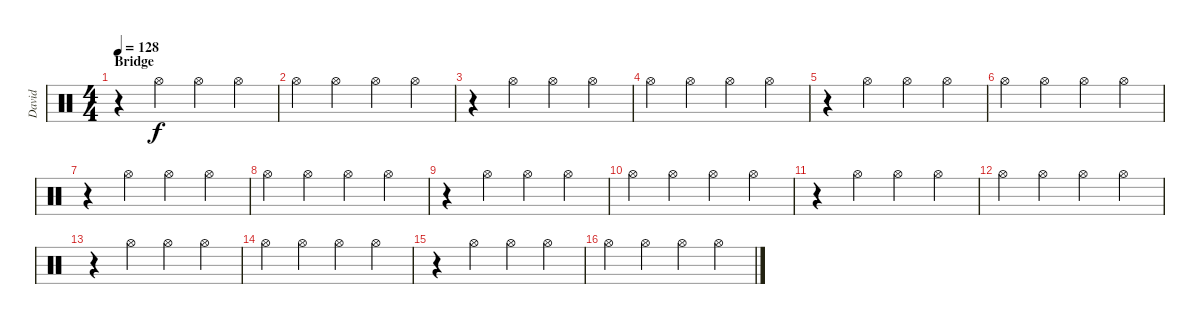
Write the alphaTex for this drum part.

\track ("David" "David") {instrument percussion}
\staff {score}
\articulation defaults
\ts (4 4)
\section ("" "Bridge")
\tempo 128
\clef neutral
\ks c
r.4{dy f} "Hi-Hat (open)".4 "Hi-Hat (open)".4 "Hi-Hat (open)".4 |
"Hi-Hat (open)".4 "Hi-Hat (open)".4 "Hi-Hat (open)".4 "Hi-Hat (open)".4 |
r.4 "Hi-Hat (open)".4 "Hi-Hat (open)".4 "Hi-Hat (open)".4 |
"Hi-Hat (open)".4 "Hi-Hat (open)".4 "Hi-Hat (open)".4 "Hi-Hat (open)".4 |
r.4 "Hi-Hat (open)".4 "Hi-Hat (open)".4 "Hi-Hat (open)".4 |
"Hi-Hat (open)".4 "Hi-Hat (open)".4 "Hi-Hat (open)".4 "Hi-Hat (open)".4 |
r.4 "Hi-Hat (open)".4 "Hi-Hat (open)".4 "Hi-Hat (open)".4 |
"Hi-Hat (open)".4 "Hi-Hat (open)".4 "Hi-Hat (open)".4 "Hi-Hat (open)".4 |
r.4 "Hi-Hat (open)".4 "Hi-Hat (open)".4 "Hi-Hat (open)".4 |
"Hi-Hat (open)".4 "Hi-Hat (open)".4 "Hi-Hat (open)".4 "Hi-Hat (open)".4 |
r.4 "Hi-Hat (open)".4 "Hi-Hat (open)".4 "Hi-Hat (open)".4 |
"Hi-Hat (open)".4 "Hi-Hat (open)".4 "Hi-Hat (open)".4 "Hi-Hat (open)".4 |
r.4 "Hi-Hat (open)".4 "Hi-Hat (open)".4 "Hi-Hat (open)".4 |
"Hi-Hat (open)".4 "Hi-Hat (open)".4 "Hi-Hat (open)".4 "Hi-Hat (open)".4 |
r.4 "Hi-Hat (open)".4 "Hi-Hat (open)".4 "Hi-Hat (open)".4 |
"Hi-Hat (open)".4 "Hi-Hat (open)".4 "Hi-Hat (open)".4 "Hi-Hat (open)".4
